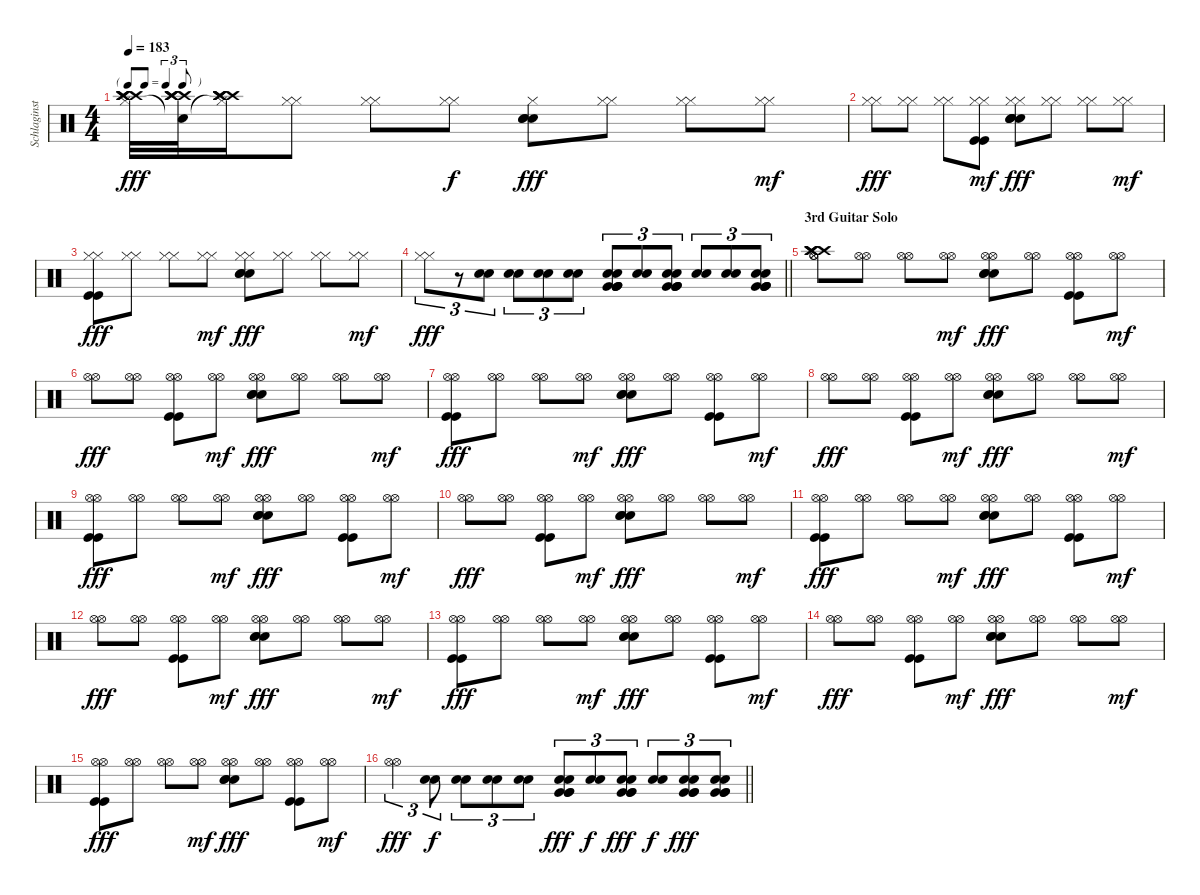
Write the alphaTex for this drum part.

\track ("Schlaginstrumente - Auswahl" "Schlaginst") {instrument percussion}
\staff {score}
\articulation defaults
\ts (4 4)
\tf triplet8th
\tempo 183
\clef neutral
\ks c
("Hi-Hat (closed)" "Crash high (hit)" "Crash high (hit)" "Crash high (hit)" "Crash high (hit)").32{dy fff} ("Snare (hit)"{t} "Crash high (hit)" "Crash high (hit)" "Crash high (hit)" "Crash high (hit)").32 ("Hi-Hat (closed)"{t} "Crash high (hit)" "Crash high (hit)" "Crash high (hit)" "Crash high (hit)").16 ("Hi-Hat (closed)" "Hi-Hat (closed)").8 ("Hi-Hat (closed)" "Hi-Hat (closed)").8 ("Hi-Hat (closed)" "Hi-Hat (closed)").8{dy f} ("Hi-Hat (closed)" "Snare (hit) 2" "Snare (hit) 2" "Snare (hit) 2").8{dy fff} ("Hi-Hat (closed)" "Hi-Hat (closed)").8 ("Hi-Hat (closed)" "Hi-Hat (closed)").8 ("Hi-Hat (closed)" "Hi-Hat (closed)").8{dy mf} |
("Hi-Hat (closed)" "Hi-Hat (closed)").8{dy fff} ("Hi-Hat (closed)" "Hi-Hat (closed)").8 ("Hi-Hat (closed)" "Hi-Hat (closed)").8 ("Hi-Hat (closed)" "Hi-Hat (closed)" "Kick (hit)" "Kick (hit)").8{dy mf} ("Hi-Hat (closed)" "Hi-Hat (closed)" "Snare (hit) 2" "Snare (hit) 2" "Snare (hit) 2" "Snare (hit) 2").8{dy fff} ("Hi-Hat (closed)" "Hi-Hat (closed)").8 ("Hi-Hat (closed)" "Hi-Hat (closed)").8 ("Hi-Hat (closed)" "Hi-Hat (closed)").8{dy mf} |
("Hi-Hat (closed)" "Hi-Hat (closed)" "Kick (hit)" "Kick (hit)").8{dy fff} ("Hi-Hat (closed)" "Hi-Hat (closed)").8 ("Hi-Hat (closed)" "Hi-Hat (closed)").8 ("Hi-Hat (closed)" "Hi-Hat (closed)").8{dy mf} ("Hi-Hat (closed)" "Hi-Hat (closed)" "Snare (hit) 2" "Snare (hit) 2" "Snare (hit) 2").8{dy fff} ("Hi-Hat (closed)" "Hi-Hat (closed)").8 ("Hi-Hat (closed)" "Hi-Hat (closed)").8 ("Hi-Hat (closed)" "Hi-Hat (closed)").8{dy mf} |
\barLineRight lightlight
("Hi-Hat (closed)" "Hi-Hat (closed)").8{tu (3 2) dy fff} r.8{tu (3 2)} ("Snare (hit) 2" "Snare (hit) 2").8{tu (3 2)} ("Snare (hit) 2" "Snare (hit) 2").8{tu (3 2)} ("Snare (hit) 2" "Snare (hit) 2").8{tu (3 2)} ("Snare (hit) 2" "Snare (hit) 2").8{tu (3 2)} ("Snare (hit) 2" "Snare (hit) 2" "Very Low Tom (hit)" "Very Low Tom (hit)" "Very Low Tom (hit)" "Very Low Tom (hit)").8{tu (3 2)} ("Snare (hit) 2" "Snare (hit) 2").8{tu (3 2)} ("Snare (hit) 2" "Snare (hit) 2" "Very Low Tom (hit)" "Very Low Tom (hit)" "Very Low Tom (hit)" "Very Low Tom (hit)").8{tu (3 2)} ("Snare (hit) 2" "Snare (hit) 2").8{tu (3 2)} ("Snare (hit) 2" "Snare (hit) 2").8{tu (3 2)} ("Snare (hit) 2" "Snare (hit) 2" "Very Low Tom (hit)" "Very Low Tom (hit)" "Very Low Tom (hit)" "Very Low Tom (hit)").8{tu (3 2)} |
\section ("" "3rd Guitar Solo")
("Hi-Hat (open)" "Hi-Hat (open)" "Crash high (hit)" "Crash high (hit)" "Crash high (hit)" "Crash high (hit)").8 ("Hi-Hat (open)" "Hi-Hat (open)").8 ("Hi-Hat (open)" "Hi-Hat (open)").8 ("Hi-Hat (open)" "Hi-Hat (open)").8{dy mf} ("Hi-Hat (open)" "Hi-Hat (open)" "Snare (hit) 2" "Snare (hit) 2" "Snare (hit) 2").8{dy fff} ("Hi-Hat (open)" "Hi-Hat (open)").8 ("Hi-Hat (open)" "Hi-Hat (open)" "Kick (hit)" "Kick (hit)").8 ("Hi-Hat (open)" "Hi-Hat (open)").8{dy mf} |
("Hi-Hat (open)" "Hi-Hat (open)").8{dy fff} ("Hi-Hat (open)" "Hi-Hat (open)").8 ("Hi-Hat (open)" "Hi-Hat (open)" "Kick (hit)" "Kick (hit)").8 ("Hi-Hat (open)" "Hi-Hat (open)").8{dy mf} ("Hi-Hat (open)" "Hi-Hat (open)" "Snare (hit) 2" "Snare (hit) 2" "Snare (hit) 2").8{dy fff} ("Hi-Hat (open)" "Hi-Hat (open)").8 ("Hi-Hat (open)" "Hi-Hat (open)").8 ("Hi-Hat (open)" "Hi-Hat (open)").8{dy mf} |
("Hi-Hat (open)" "Hi-Hat (open)" "Kick (hit)" "Kick (hit)").8{dy fff} ("Hi-Hat (open)" "Hi-Hat (open)").8 ("Hi-Hat (open)" "Hi-Hat (open)").8 ("Hi-Hat (open)" "Hi-Hat (open)").8{dy mf} ("Hi-Hat (open)" "Hi-Hat (open)" "Snare (hit) 2" "Snare (hit) 2" "Snare (hit) 2").8{dy fff} ("Hi-Hat (open)" "Hi-Hat (open)").8 ("Hi-Hat (open)" "Hi-Hat (open)" "Kick (hit)" "Kick (hit)").8 ("Hi-Hat (open)" "Hi-Hat (open)").8{dy mf} |
("Hi-Hat (open)" "Hi-Hat (open)").8{dy fff} ("Hi-Hat (open)" "Hi-Hat (open)").8 ("Hi-Hat (open)" "Hi-Hat (open)" "Kick (hit)" "Kick (hit)").8 ("Hi-Hat (open)" "Hi-Hat (open)").8{dy mf} ("Hi-Hat (open)" "Hi-Hat (open)" "Snare (hit) 2" "Snare (hit) 2" "Snare (hit) 2").8{dy fff} ("Hi-Hat (open)" "Hi-Hat (open)").8 ("Hi-Hat (open)" "Hi-Hat (open)").8 ("Hi-Hat (open)" "Hi-Hat (open)").8{dy mf} |
("Hi-Hat (open)" "Hi-Hat (open)" "Kick (hit)" "Kick (hit)").8{dy fff} ("Hi-Hat (open)" "Hi-Hat (open)").8 ("Hi-Hat (open)" "Hi-Hat (open)").8 ("Hi-Hat (open)" "Hi-Hat (open)").8{dy mf} ("Hi-Hat (open)" "Hi-Hat (open)" "Snare (hit) 2" "Snare (hit) 2" "Snare (hit) 2").8{dy fff} ("Hi-Hat (open)" "Hi-Hat (open)").8 ("Hi-Hat (open)" "Hi-Hat (open)" "Kick (hit)" "Kick (hit)").8 ("Hi-Hat (open)" "Hi-Hat (open)").8{dy mf} |
("Hi-Hat (open)" "Hi-Hat (open)").8{dy fff} ("Hi-Hat (open)" "Hi-Hat (open)").8 ("Hi-Hat (open)" "Hi-Hat (open)" "Kick (hit)" "Kick (hit)").8 ("Hi-Hat (open)" "Hi-Hat (open)").8{dy mf} ("Hi-Hat (open)" "Hi-Hat (open)" "Snare (hit) 2" "Snare (hit) 2" "Snare (hit) 2").8{dy fff} ("Hi-Hat (open)" "Hi-Hat (open)").8 ("Hi-Hat (open)" "Hi-Hat (open)").8 ("Hi-Hat (open)" "Hi-Hat (open)").8{dy mf} |
("Hi-Hat (open)" "Hi-Hat (open)" "Kick (hit)" "Kick (hit)").8{dy fff} ("Hi-Hat (open)" "Hi-Hat (open)").8 ("Hi-Hat (open)" "Hi-Hat (open)").8 ("Hi-Hat (open)" "Hi-Hat (open)").8{dy mf} ("Hi-Hat (open)" "Hi-Hat (open)" "Snare (hit) 2" "Snare (hit) 2" "Snare (hit) 2").8{dy fff} ("Hi-Hat (open)" "Hi-Hat (open)").8 ("Hi-Hat (open)" "Hi-Hat (open)" "Kick (hit)" "Kick (hit)").8 ("Hi-Hat (open)" "Hi-Hat (open)").8{dy mf} |
("Hi-Hat (open)" "Hi-Hat (open)").8{dy fff} ("Hi-Hat (open)" "Hi-Hat (open)").8 ("Hi-Hat (open)" "Hi-Hat (open)" "Kick (hit)" "Kick (hit)").8 ("Hi-Hat (open)" "Hi-Hat (open)").8{dy mf} ("Hi-Hat (open)" "Hi-Hat (open)" "Snare (hit) 2" "Snare (hit) 2" "Snare (hit) 2").8{dy fff} ("Hi-Hat (open)" "Hi-Hat (open)").8 ("Hi-Hat (open)" "Hi-Hat (open)").8 ("Hi-Hat (open)" "Hi-Hat (open)").8{dy mf} |
("Hi-Hat (open)" "Hi-Hat (open)" "Kick (hit)" "Kick (hit)").8{dy fff} ("Hi-Hat (open)" "Hi-Hat (open)").8 ("Hi-Hat (open)" "Hi-Hat (open)").8 ("Hi-Hat (open)" "Hi-Hat (open)").8{dy mf} ("Hi-Hat (open)" "Hi-Hat (open)" "Snare (hit) 2" "Snare (hit) 2" "Snare (hit) 2").8{dy fff} ("Hi-Hat (open)" "Hi-Hat (open)").8 ("Hi-Hat (open)" "Hi-Hat (open)" "Kick (hit)" "Kick (hit)").8 ("Hi-Hat (open)" "Hi-Hat (open)").8{dy mf} |
("Hi-Hat (open)" "Hi-Hat (open)").8{dy fff} ("Hi-Hat (open)" "Hi-Hat (open)").8 ("Hi-Hat (open)" "Hi-Hat (open)" "Kick (hit)" "Kick (hit)").8 ("Hi-Hat (open)" "Hi-Hat (open)").8{dy mf} ("Hi-Hat (open)" "Hi-Hat (open)" "Snare (hit) 2" "Snare (hit) 2" "Snare (hit) 2").8{dy fff} ("Hi-Hat (open)" "Hi-Hat (open)").8 ("Hi-Hat (open)" "Hi-Hat (open)").8 ("Hi-Hat (open)" "Hi-Hat (open)").8{dy mf} |
("Hi-Hat (open)" "Hi-Hat (open)" "Kick (hit)" "Kick (hit)").8{dy fff} ("Hi-Hat (open)" "Hi-Hat (open)").8 ("Hi-Hat (open)" "Hi-Hat (open)").8 ("Hi-Hat (open)" "Hi-Hat (open)").8{dy mf} ("Hi-Hat (open)" "Hi-Hat (open)" "Snare (hit) 2" "Snare (hit) 2" "Snare (hit) 2").8{dy fff} ("Hi-Hat (open)" "Hi-Hat (open)").8 ("Hi-Hat (open)" "Hi-Hat (open)" "Kick (hit)" "Kick (hit)").8 ("Hi-Hat (open)" "Hi-Hat (open)").8{dy mf} |
\barLineRight lightlight
("Hi-Hat (open)" "Hi-Hat (open)").4{tu (3 2) dy fff} ("Snare (hit) 2" "Snare (hit) 2").8{tu (3 2) dy f} ("Snare (hit) 2" "Snare (hit) 2").8{tu (3 2)} ("Snare (hit) 2" "Snare (hit) 2").8{tu (3 2)} ("Snare (hit) 2" "Snare (hit) 2").8{tu (3 2)} ("Snare (hit) 2" "Snare (hit) 2" "Very Low Tom (hit)" "Very Low Tom (hit)" "Very Low Tom (hit)").8{tu (3 2) dy fff} ("Snare (hit) 2" "Snare (hit) 2").8{tu (3 2) dy f} ("Snare (hit) 2" "Snare (hit) 2" "Very Low Tom (hit)" "Very Low Tom (hit)" "Very Low Tom (hit)").8{tu (3 2) dy fff} ("Snare (hit) 2" "Snare (hit) 2").8{tu (3 2) dy f} ("Snare (hit) 2" "Snare (hit) 2" "Very Low Tom (hit)" "Very Low Tom (hit)" "Very Low Tom (hit)").8{tu (3 2) dy fff} ("Snare (hit) 2" "Snare (hit) 2" "Very Low Tom (hit)" "Very Low Tom (hit)" "Very Low Tom (hit)").8{tu (3 2)}
